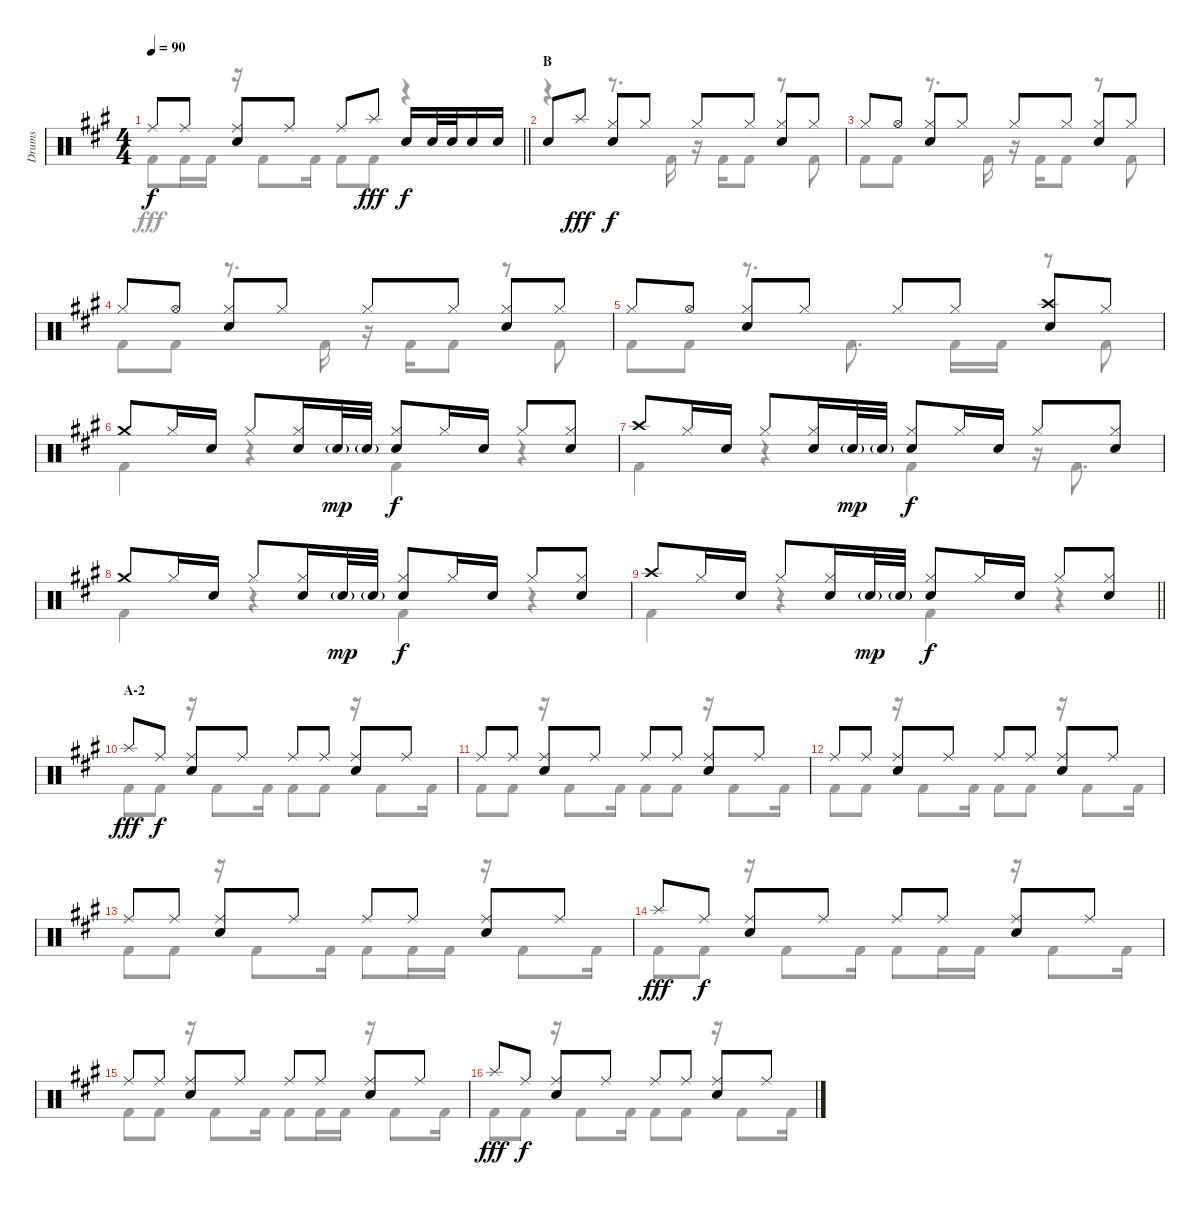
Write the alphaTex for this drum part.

\track ("Drums" "Drums") {instrument percussion}
\staff {score}
\articulation defaults
\voice
\ts (4 4)
\tempo 90
\clef neutral
\barLineRight lightlight
\ks a "Ride (middle)".8{dy f} "Ride (middle)".8
("Ride (middle)" "Snare (hit) 2").8 "Ride (middle)".8 "Ride (middle)".8 "Splash (hit)".8{dy fff} "Snare (hit) 2".16{dy f} "Snare (hit) 2".32 "Snare (hit) 2".32 "Snare (hit) 2".16 "Snare (hit) 2".16 |
\section ("" "B")
"Snare (hit) 2".8 "Splash (hit)".8{dy fff} ("Hi-Hat (closed)" "Snare (hit) 2").8{dy f} "Hi-Hat (closed)".8 "Hi-Hat (closed)".8 "Hi-Hat (closed)".8 ("Hi-Hat (closed)" "Snare (hit) 2").8 "Hi-Hat (closed)".8 |
"Hi-Hat (closed)".8 "Hi-Hat (open)".8 ("Hi-Hat (closed)" "Snare (hit) 2").8 "Hi-Hat (closed)".8 "Hi-Hat (closed)".8 "Hi-Hat (closed)".8 ("Hi-Hat (closed)" "Snare (hit) 2").8 "Hi-Hat (closed)".8 |
"Hi-Hat (closed)".8 "Hi-Hat (open)".8 ("Hi-Hat (closed)" "Snare (hit) 2").8 "Hi-Hat (closed)".8 "Hi-Hat (closed)".8 "Hi-Hat (closed)".8 ("Hi-Hat (closed)" "Snare (hit) 2").8 "Hi-Hat (closed)".8 |
"Hi-Hat (closed)".8 "Hi-Hat (open)".8 ("Hi-Hat (closed)" "Snare (hit) 2").8 "Hi-Hat (closed)".8 "Hi-Hat (closed)".8 "Hi-Hat (closed)".8 ("Crash high (hit)" "Snare (hit) 2").8 "Hi-Hat (closed)".8 |
"Crash medium (hit)".8 "Hi-Hat (closed)".16 "Snare (hit) 2".16 "Hi-Hat (closed)".8 ("Hi-Hat (closed)" "Snare (hit) 2").16 "Snare (hit) 2"{g}.32{dy mp} "Snare (hit) 2"{g}.32 ("Hi-Hat (closed)" "Snare (hit) 2").8{dy f} "Hi-Hat (closed)".16 "Snare (hit) 2".16 "Hi-Hat (closed)".8 ("Hi-Hat (closed)" "Snare (hit) 2").8 |
"Crash high (hit)".8 "Hi-Hat (closed)".16 "Snare (hit) 2".16 "Hi-Hat (closed)".8 ("Hi-Hat (closed)" "Snare (hit) 2").16 "Snare (hit) 2"{g}.32{dy mp} "Snare (hit) 2"{g}.32 ("Hi-Hat (closed)" "Snare (hit) 2").8{dy f} "Hi-Hat (closed)".16 "Snare (hit) 2".16 "Hi-Hat (closed)".8 ("Hi-Hat (closed)" "Snare (hit) 2").8 |
"Crash medium (hit)".8 "Hi-Hat (closed)".16 "Snare (hit) 2".16 "Hi-Hat (closed)".8 ("Hi-Hat (closed)" "Snare (hit) 2").16 "Snare (hit) 2"{g}.32{dy mp} "Snare (hit) 2"{g}.32 ("Hi-Hat (closed)" "Snare (hit) 2").8{dy f} "Hi-Hat (closed)".16 "Snare (hit) 2".16 "Hi-Hat (closed)".8 ("Hi-Hat (closed)" "Snare (hit) 2").8 |
\barLineRight lightlight "Crash high (hit)".8 "Hi-Hat (closed)".16 "Snare (hit) 2".16 "Hi-Hat (closed)".8
("Hi-Hat (closed)" "Snare (hit) 2").16 "Snare (hit) 2"{g}.32{dy mp} "Snare (hit) 2"{g}.32 ("Hi-Hat (closed)" "Snare (hit) 2").8{dy f} "Hi-Hat (closed)".16 "Snare (hit) 2".16 "Hi-Hat (closed)".8 ("Hi-Hat (closed)" "Snare (hit) 2").8 |
\section ("" "A-2")
"Splash (hit)".8{dy fff} "Ride (middle)".8{dy f} ("Ride (middle)" "Snare (hit) 2").8 "Ride (middle)".8 "Ride (middle)".8 "Ride (middle)".8 ("Ride (middle)" "Snare (hit) 2").8 "Ride (middle)".8 |
"Ride (middle)".8 "Ride (middle)".8 ("Ride (middle)" "Snare (hit) 2").8 "Ride (middle)".8 "Ride (middle)".8 "Ride (middle)".8 ("Ride (middle)" "Snare (hit) 2").8 "Ride (middle)".8 |
"Ride (middle)".8 "Ride (middle)".8 ("Ride (middle)" "Snare (hit) 2").8 "Ride (middle)".8 "Ride (middle)".8 "Ride (middle)".8 ("Ride (middle)" "Snare (hit) 2").8 "Ride (middle)".8 |
"Ride (middle)".8 "Ride (middle)".8 ("Ride (middle)" "Snare (hit) 2").8 "Ride (middle)".8 "Ride (middle)".8 "Ride (middle)".8 ("Ride (middle)" "Snare (hit) 2").8 "Ride (middle)".8 |
"Splash (hit)".8{dy fff} "Ride (middle)".8{dy f} ("Ride (middle)" "Snare (hit) 2").8 "Ride (middle)".8 "Ride (middle)".8 "Ride (middle)".8 ("Ride (middle)" "Snare (hit) 2").8 "Ride (middle)".8 |
"Ride (middle)".8 "Ride (middle)".8 ("Ride (middle)" "Snare (hit) 2").8 "Ride (middle)".8 "Ride (middle)".8 "Ride (middle)".8 ("Ride (middle)" "Snare (hit) 2").8 "Ride (middle)".8 |
"Splash (hit)".8{dy fff} "Ride (middle)".8{dy f} ("Ride (middle)" "Snare (hit) 2").8 "Ride (middle)".8 "Ride (middle)".8 "Ride (middle)".8 ("Ride (middle)" "Snare (hit) 2").8 "Ride (middle)".8
\voice
\clef neutral
\ottava regular
\simile none
\barLineRight lightlight
\ks a "Kick (hit) 2".8{dy fff} "Kick (hit) 2".16 "Kick (hit) 2".16
r.16 "Kick (hit) 2".8 "Kick (hit) 2".16 "Kick (hit) 2".8 "Kick (hit) 2".8 r.4 |
r.4 r.8{d} "Kick (hit) 2".16 r.16 "Kick (hit) 2".16 "Kick (hit) 2".8 r.8 "Kick (hit) 2".8 |
"Kick (hit) 2".8 "Kick (hit) 2".8 r.8{d} "Kick (hit) 2".16 r.16 "Kick (hit) 2".16 "Kick (hit) 2".8 r.8 "Kick (hit) 2".8 |
"Kick (hit) 2".8 "Kick (hit) 2".8 r.8{d} "Kick (hit) 2".16 r.16 "Kick (hit) 2".16 "Kick (hit) 2".8 r.8 "Kick (hit) 2".8 |
"Kick (hit) 2".8 "Kick (hit) 2".8 r.8{d} "Kick (hit) 2".8{d} "Kick (hit) 2".16 "Kick (hit) 2".16 r.8 "Kick (hit) 2".8 |
"Kick (hit) 2".4 r.4 "Kick (hit) 2".4 r.4 |
"Kick (hit) 2".4 r.4 "Kick (hit) 2".4 r.16 "Kick (hit) 2".8{d} |
"Kick (hit) 2".4 r.4 "Kick (hit) 2".4 r.4 |
\barLineRight lightlight "Kick (hit) 2".4
r.4 "Kick (hit) 2".4 r.4 |
"Kick (hit) 2".8 "Kick (hit) 2".8 r.16 "Kick (hit) 2".8 "Kick (hit) 2".16 "Kick (hit) 2".8 "Kick (hit) 2".8 r.16 "Kick (hit) 2".8 "Kick (hit) 2".16 |
"Kick (hit) 2".8 "Kick (hit) 2".8 r.16 "Kick (hit) 2".8 "Kick (hit) 2".16 "Kick (hit) 2".8 "Kick (hit) 2".8 r.16 "Kick (hit) 2".8 "Kick (hit) 2".16 |
"Kick (hit) 2".8 "Kick (hit) 2".8 r.16 "Kick (hit) 2".8 "Kick (hit) 2".16 "Kick (hit) 2".8 "Kick (hit) 2".8 r.16 "Kick (hit) 2".8 "Kick (hit) 2".16 |
"Kick (hit) 2".8 "Kick (hit) 2".8 r.16 "Kick (hit) 2".8 "Kick (hit) 2".16 "Kick (hit) 2".8 "Kick (hit) 2".16 "Kick (hit) 2".16 r.16 "Kick (hit) 2".8 "Kick (hit) 2".16 |
"Kick (hit) 2".8 "Kick (hit) 2".8 r.16 "Kick (hit) 2".8 "Kick (hit) 2".16 "Kick (hit) 2".8 "Kick (hit) 2".16 "Kick (hit) 2".16 r.16 "Kick (hit) 2".8 "Kick (hit) 2".16 |
"Kick (hit) 2".8 "Kick (hit) 2".8 r.16 "Kick (hit) 2".8 "Kick (hit) 2".16 "Kick (hit) 2".8 "Kick (hit) 2".16 "Kick (hit) 2".16 r.16 "Kick (hit) 2".8 "Kick (hit) 2".16 |
"Kick (hit) 2".8 "Kick (hit) 2".8 r.16 "Kick (hit) 2".8 "Kick (hit) 2".16 "Kick (hit) 2".8 "Kick (hit) 2".8 r.16 "Kick (hit) 2".8 "Kick (hit) 2".16
